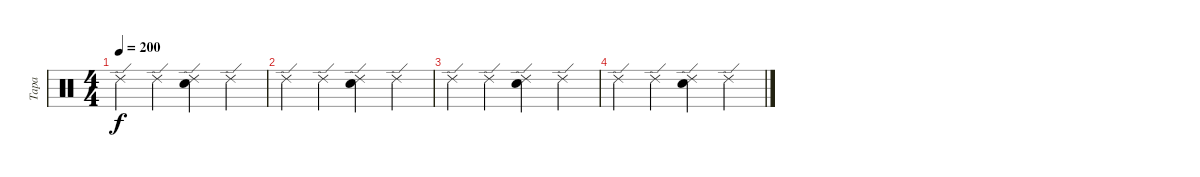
\track ("Tapa" "Tapa") {instrument percussion}
\staff {score}
\articulation defaults
\ts (4 4)
\tempo 200
\clef neutral
\ks c "Ride (edge) 2".4{dy f} "Ride (edge) 2".4
("Ride (edge) 2" "Snare (hit) 2").4 "Ride (edge) 2".4 |
"Ride (edge) 2".4 "Ride (edge) 2".4 ("Ride (edge) 2" "Snare (hit) 2").4 "Ride (edge) 2".4 |
"Ride (edge) 2".4 "Ride (edge) 2".4 ("Ride (edge) 2" "Snare (hit) 2").4 "Ride (edge) 2".4 |
"Ride (edge) 2".4 "Ride (edge) 2".4 ("Ride (edge) 2" "Snare (hit) 2").4 "Ride (edge) 2".4
